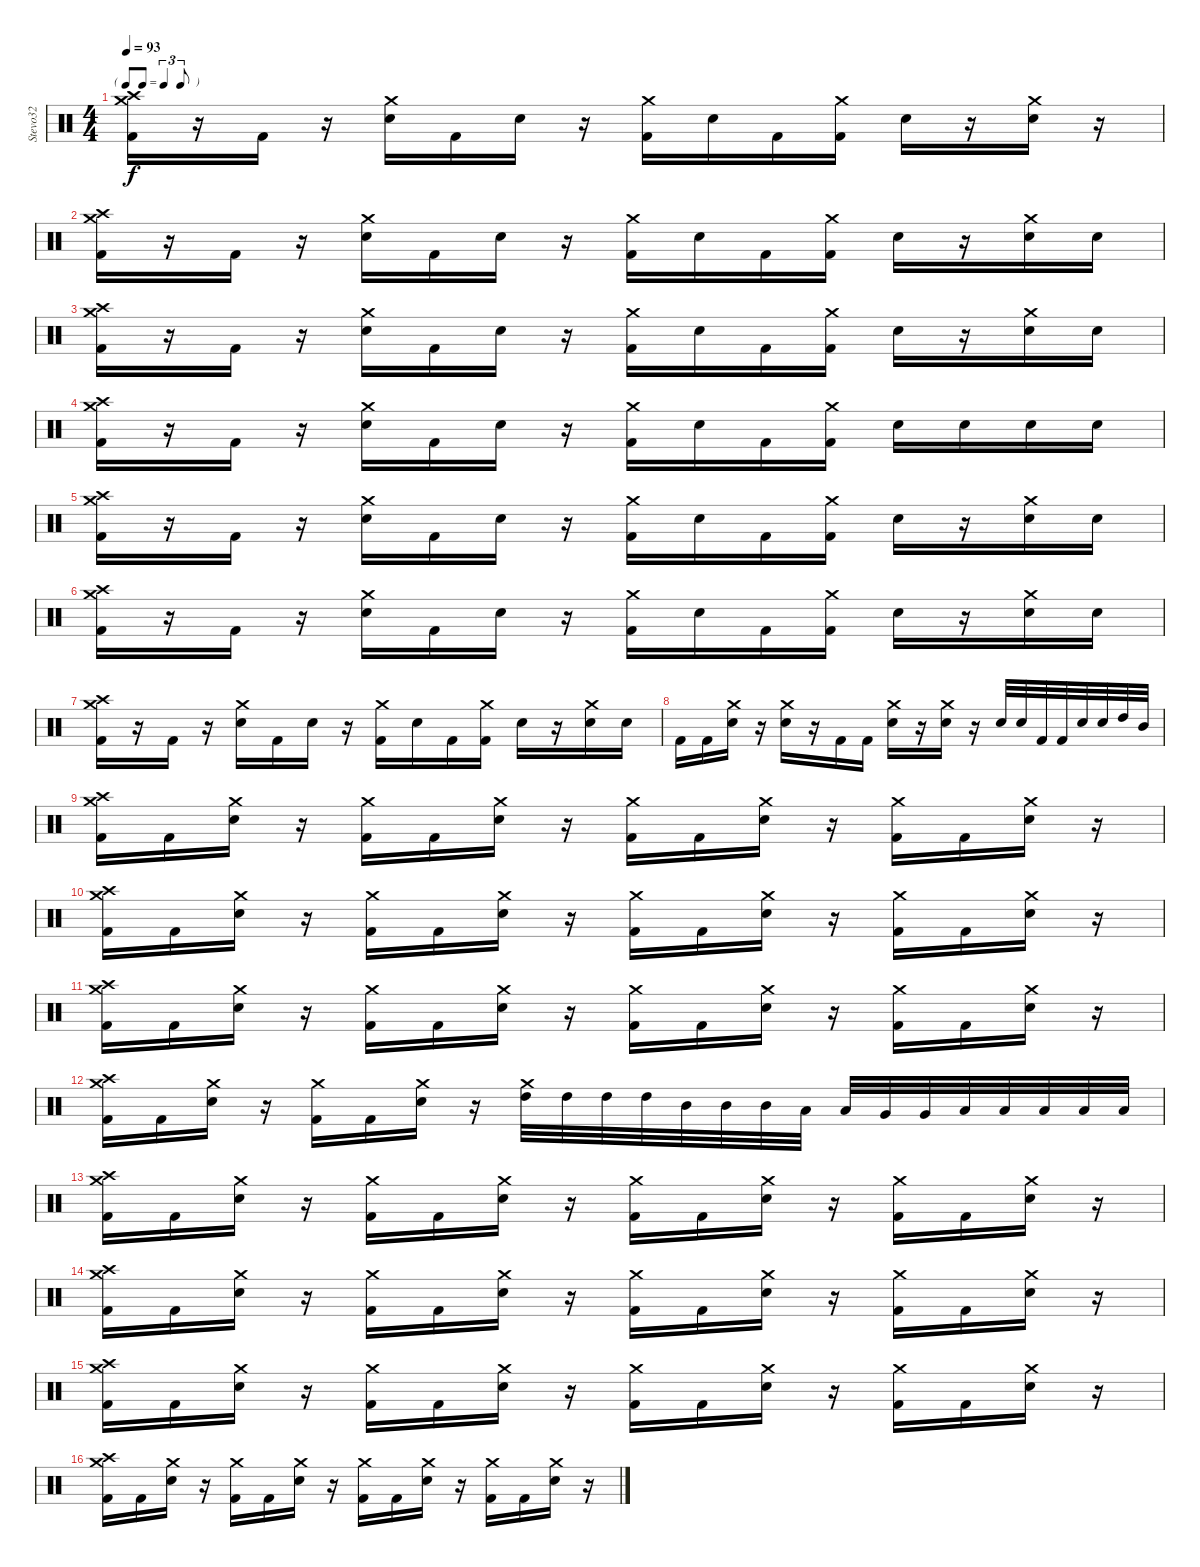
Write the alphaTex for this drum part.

\track ("Stevo32" "Stevo32") {instrument percussion}
\staff {score}
\articulation defaults
\ts (4 4)
\tf triplet8th
\tempo 93
\clef neutral
\ks c
("Crash high (hit)" "Crash medium (hit)" "Kick (hit) 2").16{dy f} r.16 "Kick (hit) 2".16 r.16 ("Crash medium (hit)" "Electric Snare (hit)").16 "Kick (hit) 2".16 "Electric Snare (hit)".16 r.16 ("Crash medium (hit)" "Kick (hit) 2").16 "Electric Snare (hit)".16 "Kick (hit) 2".16 ("Crash medium (hit)" "Kick (hit) 2").16 "Electric Snare (hit)".16 r.16 ("Crash medium (hit)" "Electric Snare (hit)").16 r.16 |
("Crash high (hit)" "Crash medium (hit)" "Kick (hit) 2").16 r.16 "Kick (hit) 2".16 r.16 ("Crash medium (hit)" "Electric Snare (hit)").16 "Kick (hit) 2".16 "Electric Snare (hit)".16 r.16 ("Crash medium (hit)" "Kick (hit) 2").16 "Electric Snare (hit)".16 "Kick (hit) 2".16 ("Crash medium (hit)" "Kick (hit) 2").16 "Electric Snare (hit)".16 r.16 ("Crash medium (hit)" "Electric Snare (hit)").16 "Electric Snare (hit)".16 |
("Crash high (hit)" "Crash medium (hit)" "Kick (hit) 2").16 r.16 "Kick (hit) 2".16 r.16 ("Crash medium (hit)" "Electric Snare (hit)").16 "Kick (hit) 2".16 "Electric Snare (hit)".16 r.16 ("Crash medium (hit)" "Kick (hit) 2").16 "Electric Snare (hit)".16 "Kick (hit) 2".16 ("Crash medium (hit)" "Kick (hit) 2").16 "Electric Snare (hit)".16 r.16 ("Crash medium (hit)" "Electric Snare (hit)").16 "Electric Snare (hit)".16 |
("Crash high (hit)" "Crash medium (hit)" "Kick (hit) 2").16 r.16 "Kick (hit) 2".16 r.16 ("Crash medium (hit)" "Electric Snare (hit)").16 "Kick (hit) 2".16 "Electric Snare (hit)".16 r.16 ("Crash medium (hit)" "Kick (hit) 2").16 "Electric Snare (hit)".16 "Kick (hit) 2".16 ("Crash medium (hit)" "Kick (hit) 2").16 "Electric Snare (hit)".16 "Electric Snare (hit)".16 "Electric Snare (hit)".16 "Electric Snare (hit)".16 |
("Crash high (hit)" "Crash medium (hit)" "Kick (hit) 2").16 r.16 "Kick (hit) 2".16 r.16 ("Crash medium (hit)" "Electric Snare (hit)").16 "Kick (hit) 2".16 "Electric Snare (hit)".16 r.16 ("Crash medium (hit)" "Kick (hit) 2").16 "Electric Snare (hit)".16 "Kick (hit) 2".16 ("Crash medium (hit)" "Kick (hit) 2").16 "Electric Snare (hit)".16 r.16 ("Crash medium (hit)" "Electric Snare (hit)").16 "Electric Snare (hit)".16 |
("Crash high (hit)" "Crash medium (hit)" "Kick (hit) 2").16 r.16 "Kick (hit) 2".16 r.16 ("Crash medium (hit)" "Electric Snare (hit)").16 "Kick (hit) 2".16 "Electric Snare (hit)".16 r.16 ("Crash medium (hit)" "Kick (hit) 2").16 "Electric Snare (hit)".16 "Kick (hit) 2".16 ("Crash medium (hit)" "Kick (hit) 2").16 "Electric Snare (hit)".16 r.16 ("Crash medium (hit)" "Electric Snare (hit)").16 "Electric Snare (hit)".16 |
("Crash high (hit)" "Crash medium (hit)" "Kick (hit) 2").16 r.16 "Kick (hit) 2".16 r.16 ("Crash medium (hit)" "Electric Snare (hit)").16 "Kick (hit) 2".16 "Electric Snare (hit)".16 r.16 ("Crash medium (hit)" "Kick (hit) 2").16 "Electric Snare (hit)".16 "Kick (hit) 2".16 ("Crash medium (hit)" "Kick (hit) 2").16 "Electric Snare (hit)".16 r.16 ("Crash medium (hit)" "Electric Snare (hit)").16 "Electric Snare (hit)".16 |
"Kick (hit) 2".16 "Kick (hit) 2".16 ("Crash medium (hit)" "Electric Snare (hit)").16 r.16 ("Crash medium (hit)" "Electric Snare (hit)").16 r.16 "Kick (hit) 2".16 "Kick (hit) 2".16 ("Crash medium (hit)" "Electric Snare (hit)").16 r.16 ("Crash medium (hit)" "Electric Snare (hit)").16 r.16 "Electric Snare (hit)".32 "Electric Snare (hit)".32 "Kick (hit) 2".32 "Kick (hit) 2".32 "Electric Snare (hit)".32 "Electric Snare (hit)".32 "High Tom (hit)".32 "Mid Tom (hit)".32 |
("Crash high (hit)" "Crash medium (hit)" "Kick (hit) 2").16 "Kick (hit) 2".16 ("Crash medium (hit)" "Electric Snare (hit)").16 r.16 ("Crash medium (hit)" "Kick (hit) 2").16 "Kick (hit) 2".16 ("Crash medium (hit)" "Electric Snare (hit)").16 r.16 ("Crash medium (hit)" "Kick (hit) 2").16 "Kick (hit) 2".16 ("Crash medium (hit)" "Electric Snare (hit)").16 r.16 ("Crash medium (hit)" "Kick (hit) 2").16 "Kick (hit) 2".16 ("Crash medium (hit)" "Electric Snare (hit)").16 r.16 |
("Crash high (hit)" "Crash medium (hit)" "Kick (hit) 2").16 "Kick (hit) 2".16 ("Crash medium (hit)" "Electric Snare (hit)").16 r.16 ("Crash medium (hit)" "Kick (hit) 2").16 "Kick (hit) 2".16 ("Crash medium (hit)" "Electric Snare (hit)").16 r.16 ("Crash medium (hit)" "Kick (hit) 2").16 "Kick (hit) 2".16 ("Crash medium (hit)" "Electric Snare (hit)").16 r.16 ("Crash medium (hit)" "Kick (hit) 2").16 "Kick (hit) 2".16 ("Crash medium (hit)" "Electric Snare (hit)").16 r.16 |
("Crash high (hit)" "Crash medium (hit)" "Kick (hit) 2").16 "Kick (hit) 2".16 ("Crash medium (hit)" "Electric Snare (hit)").16 r.16 ("Crash medium (hit)" "Kick (hit) 2").16 "Kick (hit) 2".16 ("Crash medium (hit)" "Electric Snare (hit)").16 r.16 ("Crash medium (hit)" "Kick (hit) 2").16 "Kick (hit) 2".16 ("Crash medium (hit)" "Electric Snare (hit)").16 r.16 ("Crash medium (hit)" "Kick (hit) 2").16 "Kick (hit) 2".16 ("Crash medium (hit)" "Electric Snare (hit)").16 r.16 |
("Crash high (hit)" "Crash medium (hit)" "Kick (hit) 2").16 "Kick (hit) 2".16 ("Crash medium (hit)" "Electric Snare (hit)").16 r.16 ("Crash medium (hit)" "Kick (hit) 2").16 "Kick (hit) 2".16 ("Crash medium (hit)" "Electric Snare (hit)").16 r.16 ("Crash medium (hit)" "High Tom (hit)").32 "High Tom (hit)".32 "High Tom (hit)".32 "High Tom (hit)".32 "Mid Tom (hit)".32 "Mid Tom (hit)".32 "Mid Tom (hit)".32 "Low Tom (hit)".32 "Low Tom (hit)".32 "Very Low Tom (hit)".32 "Very Low Tom (hit)".32 "Low Floor Tom (hit)".32 "Low Floor Tom (hit)".32 "Low Floor Tom (hit)".32 "Low Floor Tom (hit)".32 "Low Floor Tom (hit)".32 |
("Crash high (hit)" "Crash medium (hit)" "Kick (hit) 2").16 "Kick (hit) 2".16 ("Crash medium (hit)" "Electric Snare (hit)").16 r.16 ("Crash medium (hit)" "Kick (hit) 2").16 "Kick (hit) 2".16 ("Crash medium (hit)" "Electric Snare (hit)").16 r.16 ("Crash medium (hit)" "Kick (hit) 2").16 "Kick (hit) 2".16 ("Crash medium (hit)" "Electric Snare (hit)").16 r.16 ("Crash medium (hit)" "Kick (hit) 2").16 "Kick (hit) 2".16 ("Crash medium (hit)" "Electric Snare (hit)").16 r.16 |
("Crash high (hit)" "Crash medium (hit)" "Kick (hit) 2").16 "Kick (hit) 2".16 ("Crash medium (hit)" "Electric Snare (hit)").16 r.16 ("Crash medium (hit)" "Kick (hit) 2").16 "Kick (hit) 2".16 ("Crash medium (hit)" "Electric Snare (hit)").16 r.16 ("Crash medium (hit)" "Kick (hit) 2").16 "Kick (hit) 2".16 ("Crash medium (hit)" "Electric Snare (hit)").16 r.16 ("Crash medium (hit)" "Kick (hit) 2").16 "Kick (hit) 2".16 ("Crash medium (hit)" "Electric Snare (hit)").16 r.16 |
("Crash high (hit)" "Crash medium (hit)" "Kick (hit) 2").16 "Kick (hit) 2".16 ("Crash medium (hit)" "Electric Snare (hit)").16 r.16 ("Crash medium (hit)" "Kick (hit) 2").16 "Kick (hit) 2".16 ("Crash medium (hit)" "Electric Snare (hit)").16 r.16 ("Crash medium (hit)" "Kick (hit) 2").16 "Kick (hit) 2".16 ("Crash medium (hit)" "Electric Snare (hit)").16 r.16 ("Crash medium (hit)" "Kick (hit) 2").16 "Kick (hit) 2".16 ("Crash medium (hit)" "Electric Snare (hit)").16 r.16 |
("Crash high (hit)" "Crash medium (hit)" "Kick (hit) 2").16 "Kick (hit) 2".16 ("Crash medium (hit)" "Electric Snare (hit)").16 r.16 ("Crash medium (hit)" "Kick (hit) 2").16 "Kick (hit) 2".16 ("Crash medium (hit)" "Electric Snare (hit)").16 r.16 ("Crash medium (hit)" "Kick (hit) 2").16 "Kick (hit) 2".16 ("Crash medium (hit)" "Electric Snare (hit)").16 r.16 ("Crash medium (hit)" "Kick (hit) 2").16 "Kick (hit) 2".16 ("Crash medium (hit)" "Electric Snare (hit)").16 r.16
